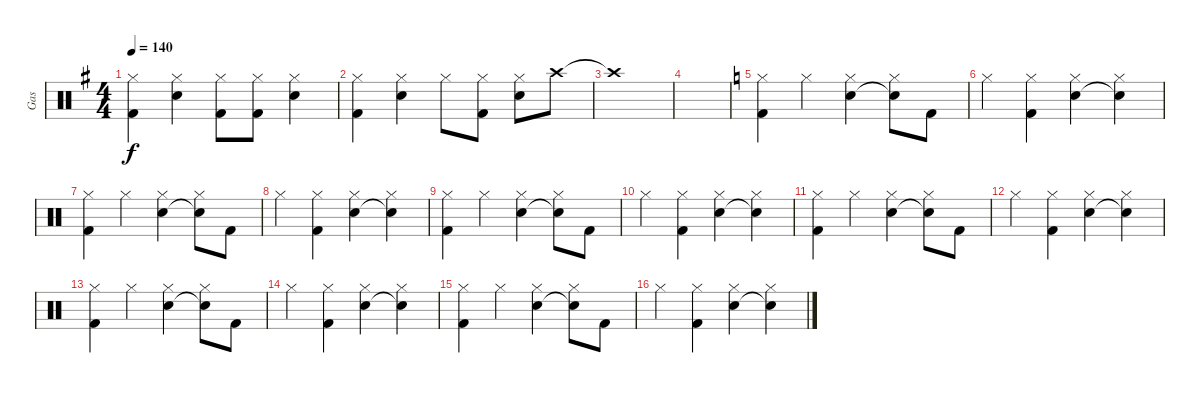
\track ("Gas" "Gas") {instrument percussion}
\staff {score}
\articulation defaults
\ts (4 4)
\tempo 140
\clef neutral
\ks eminor
("Hi-Hat (closed)" "Kick (hit) 2").4{dy f} ("Hi-Hat (closed)" "Electric Snare (hit)").4 ("Hi-Hat (closed)" "Kick (hit) 2").8 ("Hi-Hat (closed)" "Kick (hit) 2").8 ("Hi-Hat (closed)" "Electric Snare (hit)").4 |
("Hi-Hat (closed)" "Kick (hit) 2").4 ("Hi-Hat (closed)" "Electric Snare (hit)").4 "Hi-Hat (closed)".8 ("Hi-Hat (closed)" "Kick (hit) 2").8 ("Hi-Hat (closed)" "Electric Snare (hit)").8 "Crash high (hit)".8 |
"Crash high (hit)"{t}.1 |
|
\ks c
("Hi-Hat (closed)" "Kick (hit) 2").4 "Hi-Hat (closed)".4 ("Hi-Hat (closed)" "Electric Snare (hit)").4 ("Hi-Hat (closed)" "Snare (hit)"{t}).8 "Kick (hit) 2".8 |
"Hi-Hat (closed)".4 ("Hi-Hat (closed)" "Kick (hit) 2").4 ("Hi-Hat (closed)" "Electric Snare (hit)").4 ("Hi-Hat (closed)" "Snare (hit)"{t}).4 |
("Hi-Hat (closed)" "Kick (hit) 2").4 "Hi-Hat (closed)".4 ("Hi-Hat (closed)" "Electric Snare (hit)").4 ("Hi-Hat (closed)" "Snare (hit)"{t}).8 "Kick (hit) 2".8 |
"Hi-Hat (closed)".4 ("Hi-Hat (closed)" "Kick (hit) 2").4 ("Hi-Hat (closed)" "Electric Snare (hit)").4 ("Hi-Hat (closed)" "Snare (hit)"{t}).4 |
("Hi-Hat (closed)" "Kick (hit) 2").4 "Hi-Hat (closed)".4 ("Hi-Hat (closed)" "Electric Snare (hit)").4 ("Hi-Hat (closed)" "Snare (hit)"{t}).8 "Kick (hit) 2".8 |
"Hi-Hat (closed)".4 ("Hi-Hat (closed)" "Kick (hit) 2").4 ("Hi-Hat (closed)" "Electric Snare (hit)").4 ("Hi-Hat (closed)" "Snare (hit)"{t}).4 |
("Hi-Hat (closed)" "Kick (hit) 2").4 "Hi-Hat (closed)".4 ("Hi-Hat (closed)" "Electric Snare (hit)").4 ("Hi-Hat (closed)" "Snare (hit)"{t}).8 "Kick (hit) 2".8 |
"Hi-Hat (closed)".4 ("Hi-Hat (closed)" "Kick (hit) 2").4 ("Hi-Hat (closed)" "Electric Snare (hit)").4 ("Hi-Hat (closed)" "Snare (hit)"{t}).4 |
("Hi-Hat (closed)" "Kick (hit) 2").4 "Hi-Hat (closed)".4 ("Hi-Hat (closed)" "Electric Snare (hit)").4 ("Hi-Hat (closed)" "Snare (hit)"{t}).8 "Kick (hit) 2".8 |
"Hi-Hat (closed)".4 ("Hi-Hat (closed)" "Kick (hit) 2").4 ("Hi-Hat (closed)" "Electric Snare (hit)").4 ("Hi-Hat (closed)" "Snare (hit)"{t}).4 |
("Hi-Hat (closed)" "Kick (hit) 2").4 "Hi-Hat (closed)".4 ("Hi-Hat (closed)" "Electric Snare (hit)").4 ("Hi-Hat (closed)" "Snare (hit)"{t}).8 "Kick (hit) 2".8 |
"Hi-Hat (closed)".4 ("Hi-Hat (closed)" "Kick (hit) 2").4 ("Hi-Hat (closed)" "Electric Snare (hit)").4 ("Hi-Hat (closed)" "Snare (hit)"{t}).4
